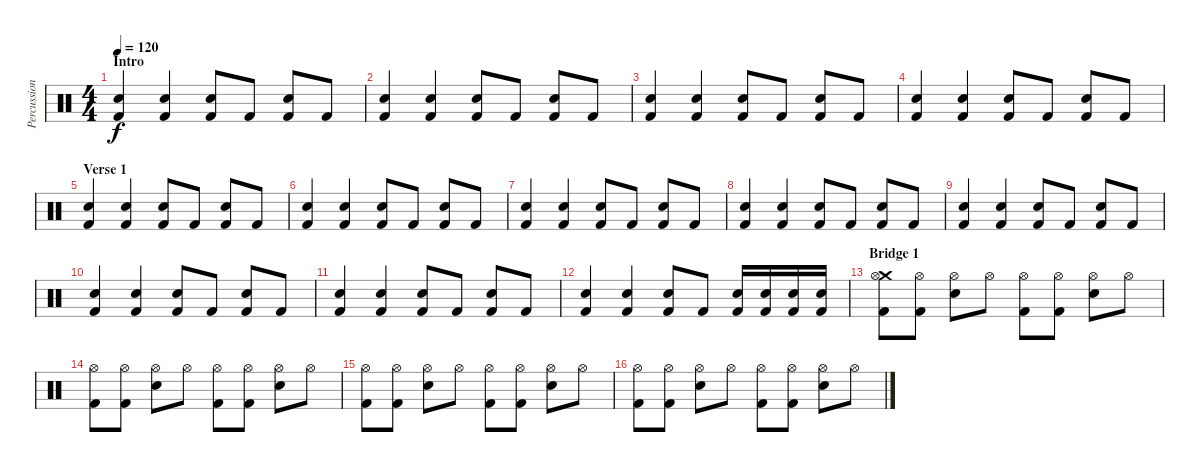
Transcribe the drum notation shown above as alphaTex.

\track ("Percussions" "Percussion") {instrument percussion}
\staff {score}
\articulation defaults
\ts (4 4)
\section ("" "Intro")
\tempo 120
\clef neutral
\ks c
("Electric Snare (hit)" "Kick (hit) 2").4{dy f} ("Electric Snare (hit)" "Kick (hit) 2").4 ("Electric Snare (hit)" "Kick (hit) 2").8 "Kick (hit) 2".8 ("Electric Snare (hit)" "Kick (hit) 2").8 "Kick (hit) 2".8 |
("Electric Snare (hit)" "Kick (hit) 2").4 ("Electric Snare (hit)" "Kick (hit) 2").4 ("Electric Snare (hit)" "Kick (hit) 2").8 "Kick (hit) 2".8 ("Electric Snare (hit)" "Kick (hit) 2").8 "Kick (hit) 2".8 |
("Electric Snare (hit)" "Kick (hit) 2").4 ("Electric Snare (hit)" "Kick (hit) 2").4 ("Electric Snare (hit)" "Kick (hit) 2").8 "Kick (hit) 2".8 ("Electric Snare (hit)" "Kick (hit) 2").8 "Kick (hit) 2".8 |
("Electric Snare (hit)" "Kick (hit) 2").4 ("Electric Snare (hit)" "Kick (hit) 2").4 ("Electric Snare (hit)" "Kick (hit) 2").8 "Kick (hit) 2".8 ("Electric Snare (hit)" "Kick (hit) 2").8 "Kick (hit) 2".8 |
\section ("" "Verse 1")
("Electric Snare (hit)" "Kick (hit) 2").4 ("Electric Snare (hit)" "Kick (hit) 2").4 ("Electric Snare (hit)" "Kick (hit) 2").8 "Kick (hit) 2".8 ("Electric Snare (hit)" "Kick (hit) 2").8 "Kick (hit) 2".8 |
("Electric Snare (hit)" "Kick (hit) 2").4 ("Electric Snare (hit)" "Kick (hit) 2").4 ("Electric Snare (hit)" "Kick (hit) 2").8 "Kick (hit) 2".8 ("Electric Snare (hit)" "Kick (hit) 2").8 "Kick (hit) 2".8 |
("Electric Snare (hit)" "Kick (hit) 2").4 ("Electric Snare (hit)" "Kick (hit) 2").4 ("Electric Snare (hit)" "Kick (hit) 2").8 "Kick (hit) 2".8 ("Electric Snare (hit)" "Kick (hit) 2").8 "Kick (hit) 2".8 |
("Electric Snare (hit)" "Kick (hit) 2").4 ("Electric Snare (hit)" "Kick (hit) 2").4 ("Electric Snare (hit)" "Kick (hit) 2").8 "Kick (hit) 2".8 ("Electric Snare (hit)" "Kick (hit) 2").8 "Kick (hit) 2".8 |
("Electric Snare (hit)" "Kick (hit) 2").4 ("Electric Snare (hit)" "Kick (hit) 2").4 ("Electric Snare (hit)" "Kick (hit) 2").8 "Kick (hit) 2".8 ("Electric Snare (hit)" "Kick (hit) 2").8 "Kick (hit) 2".8 |
("Electric Snare (hit)" "Kick (hit) 2").4 ("Electric Snare (hit)" "Kick (hit) 2").4 ("Electric Snare (hit)" "Kick (hit) 2").8 "Kick (hit) 2".8 ("Electric Snare (hit)" "Kick (hit) 2").8 "Kick (hit) 2".8 |
("Electric Snare (hit)" "Kick (hit) 2").4 ("Electric Snare (hit)" "Kick (hit) 2").4 ("Electric Snare (hit)" "Kick (hit) 2").8 "Kick (hit) 2".8 ("Electric Snare (hit)" "Kick (hit) 2").8 "Kick (hit) 2".8 |
("Electric Snare (hit)" "Kick (hit) 2").4 ("Electric Snare (hit)" "Kick (hit) 2").4 ("Electric Snare (hit)" "Kick (hit) 2").8 "Kick (hit) 2".8 ("Electric Snare (hit)" "Kick (hit) 2").16 ("Electric Snare (hit)" "Kick (hit) 2").16 ("Electric Snare (hit)" "Kick (hit) 2").16 ("Electric Snare (hit)" "Kick (hit) 2").16 |
\section ("" "Bridge 1")
("Crash medium (hit)" "Hi-Hat (open)" "Kick (hit) 2").8 ("Hi-Hat (open)" "Kick (hit) 2").8 ("Hi-Hat (open)" "Electric Snare (hit)").8 "Hi-Hat (open)".8 ("Hi-Hat (open)" "Kick (hit) 2").8 ("Hi-Hat (open)" "Kick (hit) 2").8 ("Hi-Hat (open)" "Electric Snare (hit)").8 "Hi-Hat (open)".8 |
("Hi-Hat (open)" "Kick (hit) 2").8 ("Hi-Hat (open)" "Kick (hit) 2").8 ("Hi-Hat (open)" "Electric Snare (hit)").8 "Hi-Hat (open)".8 ("Hi-Hat (open)" "Kick (hit) 2").8 ("Hi-Hat (open)" "Kick (hit) 2").8 ("Hi-Hat (open)" "Electric Snare (hit)").8 "Hi-Hat (open)".8 |
("Hi-Hat (open)" "Kick (hit) 2").8 ("Hi-Hat (open)" "Kick (hit) 2").8 ("Hi-Hat (open)" "Electric Snare (hit)").8 "Hi-Hat (open)".8 ("Hi-Hat (open)" "Kick (hit) 2").8 ("Hi-Hat (open)" "Kick (hit) 2").8 ("Hi-Hat (open)" "Electric Snare (hit)").8 "Hi-Hat (open)".8 |
("Hi-Hat (open)" "Kick (hit) 2").8 ("Hi-Hat (open)" "Kick (hit) 2").8 ("Hi-Hat (open)" "Electric Snare (hit)").8 "Hi-Hat (open)".8 ("Hi-Hat (open)" "Kick (hit) 2").8 ("Hi-Hat (open)" "Kick (hit) 2").8 ("Hi-Hat (open)" "Electric Snare (hit)").8 "Hi-Hat (open)".8
